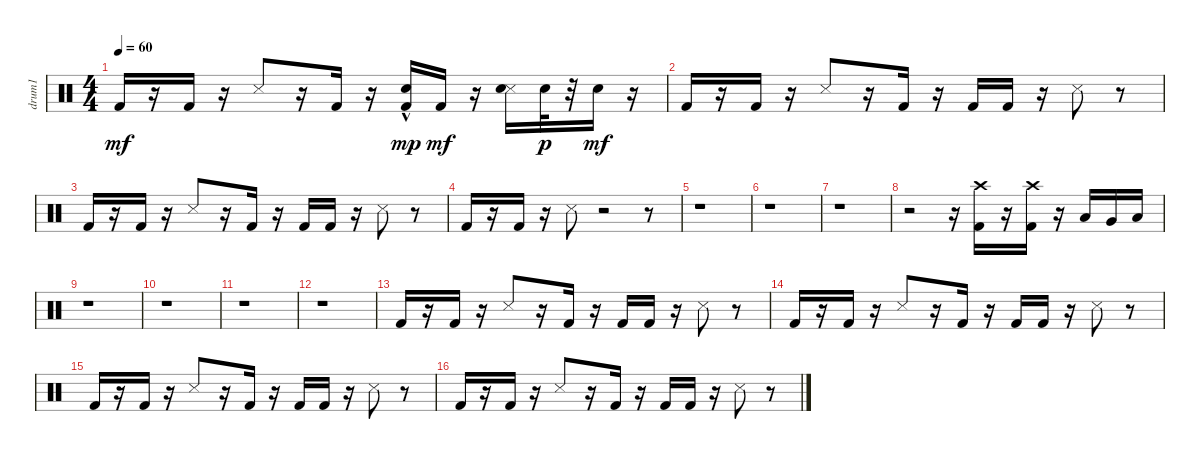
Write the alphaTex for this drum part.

\track ("drum1" "drum1") {instrument percussion}
\staff {score}
\articulation defaults
\ts (4 4)
\tempo 60
\clef neutral
\ks c "Kick (hit) 2".16{dy mf}
r.16 "Kick (hit) 2".16 r.16 "Snare (side stick) 3".8 r.16 "Kick (hit) 2".16 r.16 ("Kick (hit) 2" "Electric Snare (hit)"{hac}).16{dy mp} "Kick (hit) 2".16{dy mf} r.16 ("Snare (side stick) 3" "Electric Snare (hit)").16 "Electric Snare (hit)".32{dy p} r.32 "Snare (hit) 2".16{dy mf} r.16 |
"Kick (hit) 2".16 r.16 "Kick (hit) 2".16 r.16 "Snare (side stick) 3".8 r.16 "Kick (hit) 2".16 r.16 "Kick (hit) 2".16 "Kick (hit) 2".16 r.16 "Snare (side stick) 3".8 r.8 |
"Kick (hit) 2".16 r.16 "Kick (hit) 2".16 r.16 "Snare (side stick) 3".8 r.16 "Kick (hit) 2".16 r.16 "Kick (hit) 2".16 "Kick (hit) 2".16 r.16 "Snare (side stick) 3".8 r.8 |
"Kick (hit) 2".16 r.16 "Kick (hit) 2".16 r.16 "Snare (side stick) 3".8 r.2 r.8 |
r.1 |
r.1 |
r.1 |
r.2 r.16 ("Crash high (hit)" "Kick (hit) 2").16 r.16 ("Kick (hit) 2" "Crash high (hit)").16 r.16 "Low Tom (hit)".16 "Very Low Tom (hit)".16 "Low Floor Tom (hit)".16 |
r.1 |
r.1 |
r.1 |
r.1 |
"Kick (hit) 2".16 r.16 "Kick (hit) 2".16 r.16 "Snare (side stick) 3".8 r.16 "Kick (hit) 2".16 r.16 "Kick (hit) 2".16 "Kick (hit) 2".16 r.16 "Snare (side stick) 3".8 r.8 |
"Kick (hit) 2".16 r.16 "Kick (hit) 2".16 r.16 "Snare (side stick) 3".8 r.16 "Kick (hit) 2".16 r.16 "Kick (hit) 2".16 "Kick (hit) 2".16 r.16 "Snare (side stick) 3".8 r.8 |
"Kick (hit) 2".16 r.16 "Kick (hit) 2".16 r.16 "Snare (side stick) 3".8 r.16 "Kick (hit) 2".16 r.16 "Kick (hit) 2".16 "Kick (hit) 2".16 r.16 "Snare (side stick) 3".8 r.8 |
"Kick (hit) 2".16 r.16 "Kick (hit) 2".16 r.16 "Snare (side stick) 3".8 r.16 "Kick (hit) 2".16 r.16 "Kick (hit) 2".16 "Kick (hit) 2".16 r.16 "Snare (side stick) 3".8 r.8
